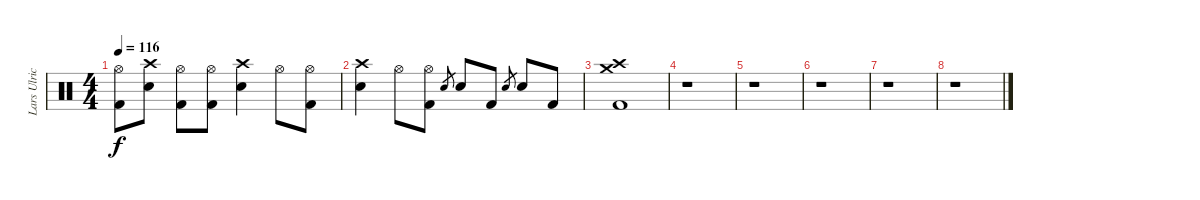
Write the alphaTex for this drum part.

\track ("Lars Ulrich - drums" "Lars Ulric") {instrument percussion}
\staff {score}
\articulation defaults
\ts (4 4)
\tempo 116
\clef neutral
\ks c
("Hi-Hat (open)" "Kick (hit) 2").8{dy f} ("Crash high (hit)" "Snare (hit) 2").8 ("Hi-Hat (open)" "Kick (hit) 2").8 ("Hi-Hat (open)" "Kick (hit) 2").8 ("Crash high (hit)" "Snare (hit) 2").4 "Hi-Hat (open)".8 ("Hi-Hat (open)" "Kick (hit) 2").8 |
("Crash high (hit)" "Snare (hit) 2").4 "Hi-Hat (open)".8 ("Hi-Hat (open)" "Kick (hit) 2").8 "Snare (hit) 2".8{gr} "Snare (hit) 2".8 "Kick (hit) 2".8 "Snare (hit) 2".8{gr} "Snare (hit) 2".8 "Kick (hit) 2".8 |
("Crash high (hit)" "Crash medium (hit)" "Kick (hit) 2").1 |
r.1 |
r.1 |
r.1 |
r.1 |
r.1
